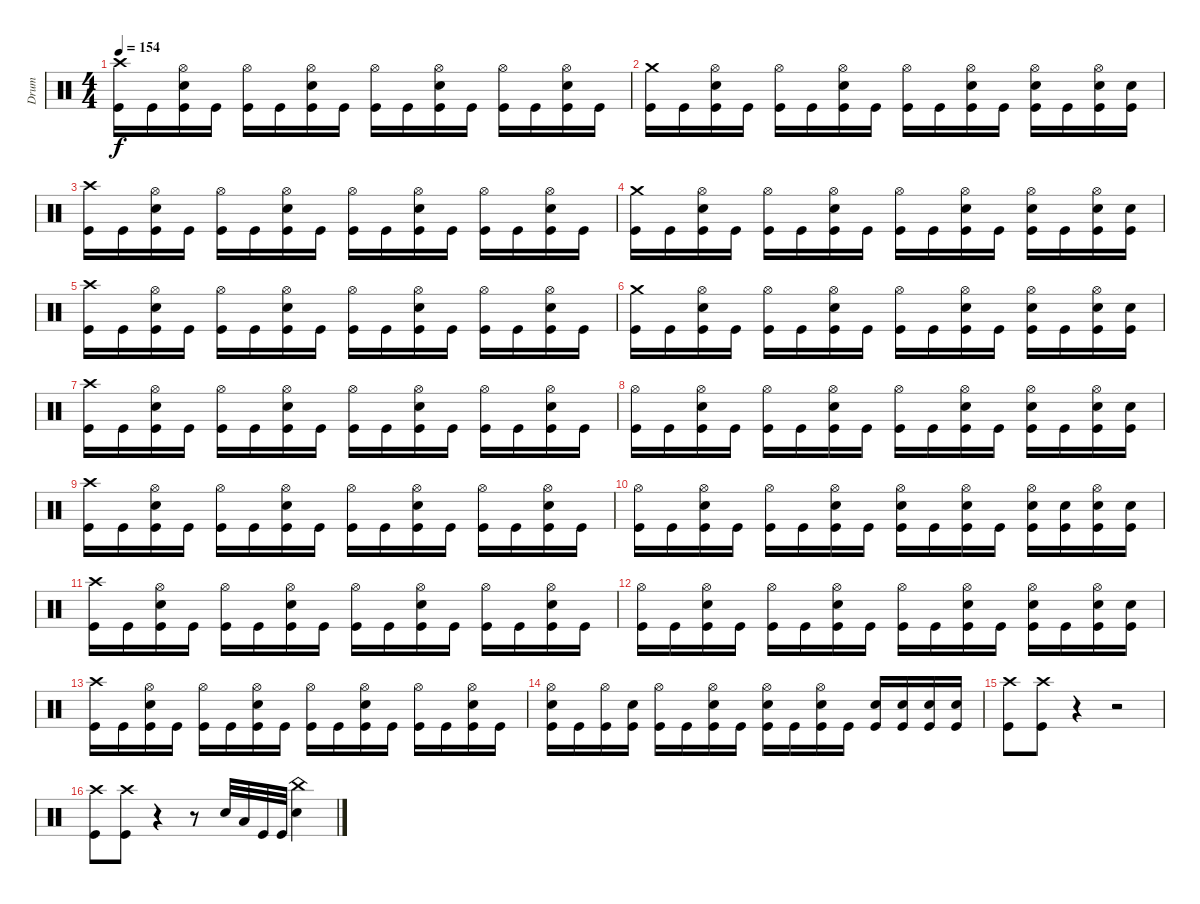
\track ("Drum" "Drum") {instrument percussion}
\staff {score}
\articulation defaults
\ts (4 4)
\tempo 154
\clef neutral
\ks c
("Kick (hit)" "Crash high (hit)").16{dy f} "Kick (hit)".16 ("Kick (hit)" "Electric Snare (hit)" "Hi-Hat (open)").16 "Kick (hit)".16 ("Kick (hit)" "Hi-Hat (open)").16 "Kick (hit)".16 ("Kick (hit)" "Electric Snare (hit)" "Hi-Hat (open)").16 "Kick (hit)".16 ("Kick (hit)" "Hi-Hat (open)").16 "Kick (hit)".16 ("Kick (hit)" "Electric Snare (hit)" "Hi-Hat (open)").16 "Kick (hit)".16 ("Kick (hit)" "Hi-Hat (open)").16 "Kick (hit)".16 ("Kick (hit)" "Electric Snare (hit)" "Hi-Hat (open)").16 "Kick (hit)".16 |
("Kick (hit)" "Crash medium (hit)").16 "Kick (hit)".16 ("Kick (hit)" "Electric Snare (hit)" "Hi-Hat (open)").16 "Kick (hit)".16 ("Kick (hit)" "Hi-Hat (open)").16 "Kick (hit)".16 ("Kick (hit)" "Electric Snare (hit)" "Hi-Hat (open)").16 "Kick (hit)".16 ("Kick (hit)" "Hi-Hat (open)").16 "Kick (hit)".16 ("Kick (hit)" "Electric Snare (hit)" "Hi-Hat (open)").16 "Kick (hit)".16 ("Kick (hit)" "Electric Snare (hit)" "Hi-Hat (open)").16 "Kick (hit)".16 ("Kick (hit)" "Electric Snare (hit)" "Hi-Hat (open)").16 ("Kick (hit)" "Electric Snare (hit)").16 |
("Kick (hit)" "Crash high (hit)").16 "Kick (hit)".16 ("Kick (hit)" "Electric Snare (hit)" "Hi-Hat (open)").16 "Kick (hit)".16 ("Kick (hit)" "Hi-Hat (open)").16 "Kick (hit)".16 ("Kick (hit)" "Electric Snare (hit)" "Hi-Hat (open)").16 "Kick (hit)".16 ("Kick (hit)" "Hi-Hat (open)").16 "Kick (hit)".16 ("Kick (hit)" "Electric Snare (hit)" "Hi-Hat (open)").16 "Kick (hit)".16 ("Kick (hit)" "Hi-Hat (open)").16 "Kick (hit)".16 ("Kick (hit)" "Electric Snare (hit)" "Hi-Hat (open)").16 "Kick (hit)".16 |
("Kick (hit)" "Crash medium (hit)").16 "Kick (hit)".16 ("Kick (hit)" "Electric Snare (hit)" "Hi-Hat (open)").16 "Kick (hit)".16 ("Kick (hit)" "Hi-Hat (open)").16 "Kick (hit)".16 ("Kick (hit)" "Electric Snare (hit)" "Hi-Hat (open)").16 "Kick (hit)".16 ("Kick (hit)" "Hi-Hat (open)").16 "Kick (hit)".16 ("Kick (hit)" "Electric Snare (hit)" "Hi-Hat (open)").16 "Kick (hit)".16 ("Kick (hit)" "Electric Snare (hit)" "Hi-Hat (open)").16 "Kick (hit)".16 ("Kick (hit)" "Electric Snare (hit)" "Hi-Hat (open)").16 ("Kick (hit)" "Electric Snare (hit)").16 |
("Kick (hit)" "Crash high (hit)").16 "Kick (hit)".16 ("Kick (hit)" "Electric Snare (hit)" "Hi-Hat (open)").16 "Kick (hit)".16 ("Kick (hit)" "Hi-Hat (open)").16 "Kick (hit)".16 ("Kick (hit)" "Electric Snare (hit)" "Hi-Hat (open)").16 "Kick (hit)".16 ("Kick (hit)" "Hi-Hat (open)").16 "Kick (hit)".16 ("Kick (hit)" "Electric Snare (hit)" "Hi-Hat (open)").16 "Kick (hit)".16 ("Kick (hit)" "Hi-Hat (open)").16 "Kick (hit)".16 ("Kick (hit)" "Electric Snare (hit)" "Hi-Hat (open)").16 "Kick (hit)".16 |
("Kick (hit)" "Crash medium (hit)").16 "Kick (hit)".16 ("Kick (hit)" "Electric Snare (hit)" "Hi-Hat (open)").16 "Kick (hit)".16 ("Kick (hit)" "Hi-Hat (open)").16 "Kick (hit)".16 ("Kick (hit)" "Electric Snare (hit)" "Hi-Hat (open)").16 "Kick (hit)".16 ("Kick (hit)" "Hi-Hat (open)").16 "Kick (hit)".16 ("Kick (hit)" "Electric Snare (hit)" "Hi-Hat (open)").16 "Kick (hit)".16 ("Kick (hit)" "Electric Snare (hit)" "Hi-Hat (open)").16 "Kick (hit)".16 ("Kick (hit)" "Electric Snare (hit)" "Hi-Hat (open)").16 ("Kick (hit)" "Electric Snare (hit)").16 |
("Kick (hit)" "Crash high (hit)").16 "Kick (hit)".16 ("Kick (hit)" "Electric Snare (hit)" "Hi-Hat (open)").16 "Kick (hit)".16 ("Kick (hit)" "Hi-Hat (open)").16 "Kick (hit)".16 ("Kick (hit)" "Electric Snare (hit)" "Hi-Hat (open)").16 "Kick (hit)".16 ("Kick (hit)" "Hi-Hat (open)").16 "Kick (hit)".16 ("Kick (hit)" "Electric Snare (hit)" "Hi-Hat (open)").16 "Kick (hit)".16 ("Kick (hit)" "Hi-Hat (open)").16 "Kick (hit)".16 ("Kick (hit)" "Electric Snare (hit)" "Hi-Hat (open)").16 "Kick (hit)".16 |
("Kick (hit)" "Hi-Hat (open)").16 "Kick (hit)".16 ("Kick (hit)" "Electric Snare (hit)" "Hi-Hat (open)").16 "Kick (hit)".16 ("Kick (hit)" "Hi-Hat (open)").16 "Kick (hit)".16 ("Kick (hit)" "Electric Snare (hit)" "Hi-Hat (open)").16 "Kick (hit)".16 ("Kick (hit)" "Hi-Hat (open)").16 "Kick (hit)".16 ("Kick (hit)" "Electric Snare (hit)" "Hi-Hat (open)").16 "Kick (hit)".16 ("Kick (hit)" "Electric Snare (hit)" "Hi-Hat (open)").16 "Kick (hit)".16 ("Kick (hit)" "Electric Snare (hit)" "Hi-Hat (open)").16 ("Kick (hit)" "Electric Snare (hit)").16 |
("Kick (hit)" "Crash high (hit)").16 "Kick (hit)".16 ("Kick (hit)" "Electric Snare (hit)" "Hi-Hat (open)").16 "Kick (hit)".16 ("Kick (hit)" "Hi-Hat (open)").16 "Kick (hit)".16 ("Kick (hit)" "Electric Snare (hit)" "Hi-Hat (open)").16 "Kick (hit)".16 ("Kick (hit)" "Hi-Hat (open)").16 "Kick (hit)".16 ("Kick (hit)" "Electric Snare (hit)" "Hi-Hat (open)").16 "Kick (hit)".16 ("Kick (hit)" "Hi-Hat (open)").16 "Kick (hit)".16 ("Kick (hit)" "Electric Snare (hit)" "Hi-Hat (open)").16 "Kick (hit)".16 |
("Kick (hit)" "Hi-Hat (open)").16 "Kick (hit)".16 ("Kick (hit)" "Electric Snare (hit)" "Hi-Hat (open)").16 "Kick (hit)".16 ("Kick (hit)" "Hi-Hat (open)").16 "Kick (hit)".16 ("Kick (hit)" "Electric Snare (hit)" "Hi-Hat (open)").16 "Kick (hit)".16 ("Kick (hit)" "Electric Snare (hit)" "Hi-Hat (open)").16 "Kick (hit)".16 ("Kick (hit)" "Electric Snare (hit)" "Hi-Hat (open)").16 "Kick (hit)".16 ("Kick (hit)" "Electric Snare (hit)" "Hi-Hat (open)").16 ("Kick (hit)" "Electric Snare (hit)").16 ("Kick (hit)" "Electric Snare (hit)" "Hi-Hat (open)").16 ("Kick (hit)" "Electric Snare (hit)").16 |
("Kick (hit)" "Crash high (hit)").16 "Kick (hit)".16 ("Kick (hit)" "Electric Snare (hit)" "Hi-Hat (open)").16 "Kick (hit)".16 ("Kick (hit)" "Hi-Hat (open)").16 "Kick (hit)".16 ("Kick (hit)" "Electric Snare (hit)" "Hi-Hat (open)").16 "Kick (hit)".16 ("Kick (hit)" "Hi-Hat (open)").16 "Kick (hit)".16 ("Kick (hit)" "Electric Snare (hit)" "Hi-Hat (open)").16 "Kick (hit)".16 ("Kick (hit)" "Hi-Hat (open)").16 "Kick (hit)".16 ("Kick (hit)" "Electric Snare (hit)" "Hi-Hat (open)").16 "Kick (hit)".16 |
("Kick (hit)" "Hi-Hat (open)").16 "Kick (hit)".16 ("Kick (hit)" "Electric Snare (hit)" "Hi-Hat (open)").16 "Kick (hit)".16 ("Kick (hit)" "Hi-Hat (open)").16 "Kick (hit)".16 ("Kick (hit)" "Electric Snare (hit)" "Hi-Hat (open)").16 "Kick (hit)".16 ("Kick (hit)" "Hi-Hat (open)").16 "Kick (hit)".16 ("Kick (hit)" "Electric Snare (hit)" "Hi-Hat (open)").16 "Kick (hit)".16 ("Kick (hit)" "Electric Snare (hit)" "Hi-Hat (open)").16 "Kick (hit)".16 ("Kick (hit)" "Electric Snare (hit)" "Hi-Hat (open)").16 ("Kick (hit)" "Electric Snare (hit)").16 |
("Kick (hit)" "Crash high (hit)").16 "Kick (hit)".16 ("Kick (hit)" "Electric Snare (hit)" "Hi-Hat (open)").16 "Kick (hit)".16 ("Kick (hit)" "Hi-Hat (open)").16 "Kick (hit)".16 ("Kick (hit)" "Electric Snare (hit)" "Hi-Hat (open)").16 "Kick (hit)".16 ("Kick (hit)" "Hi-Hat (open)").16 "Kick (hit)".16 ("Kick (hit)" "Electric Snare (hit)" "Hi-Hat (open)").16 "Kick (hit)".16 ("Kick (hit)" "Hi-Hat (open)").16 "Kick (hit)".16 ("Kick (hit)" "Electric Snare (hit)" "Hi-Hat (open)").16 "Kick (hit)".16 |
("Kick (hit)" "Electric Snare (hit)" "Hi-Hat (open)").16 "Kick (hit)".16 ("Kick (hit)" "Hi-Hat (open)").16 ("Kick (hit)" "Electric Snare (hit)").16 ("Kick (hit)" "Hi-Hat (open)").16 "Kick (hit)".16 ("Kick (hit)" "Electric Snare (hit)" "Hi-Hat (open)").16 "Kick (hit)".16 ("Kick (hit)" "Electric Snare (hit)" "Hi-Hat (open)").16 "Kick (hit)".16 ("Kick (hit)" "Electric Snare (hit)" "Hi-Hat (open)").16 "Kick (hit)".16 ("Kick (hit)" "Electric Snare (hit)").16 ("Kick (hit)" "Electric Snare (hit)").16 ("Kick (hit)" "Electric Snare (hit)").16 ("Kick (hit)" "Electric Snare (hit)").16 |
("Kick (hit)" "Crash high (hit)").8 ("Kick (hit)" "Crash high (hit)").8 r.4 r.2 |
("Kick (hit)" "Crash high (hit)").8 ("Kick (hit)" "Crash high (hit)").8 r.4 r.8 "Electric Snare (hit)".32 "Low Floor Tom (hit)".32 "Kick (hit)".32 "Kick (hit)".32 ("Electric Snare (hit)" "China (hit)").4
